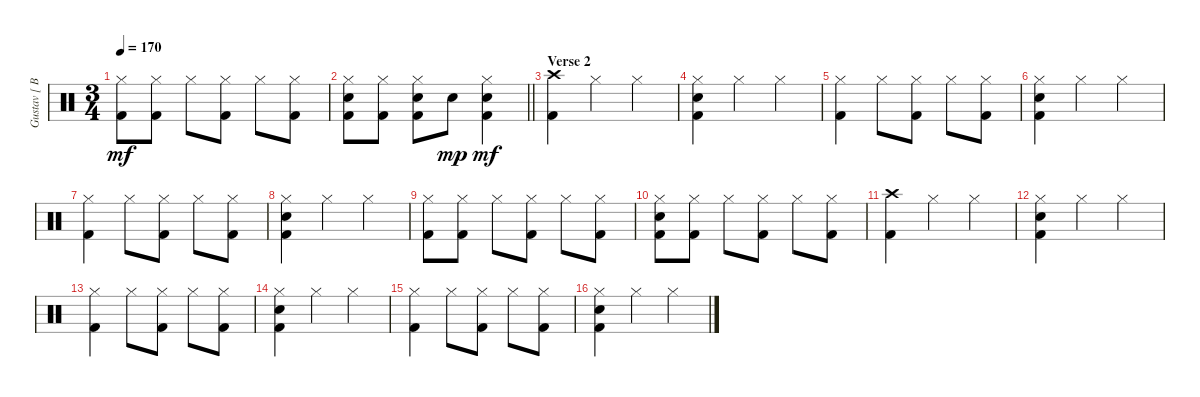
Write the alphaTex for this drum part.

\track ("Gustav [ Batterie ]" "Gustav [ B") {instrument percussion}
\staff {score}
\articulation defaults
\ts (3 4)
\tempo 170
\clef neutral
\ks c
("Hi-Hat (closed)" "Kick (hit) 2").8{dy mf} ("Hi-Hat (closed)" "Kick (hit) 2").8 "Hi-Hat (closed)".8 ("Hi-Hat (closed)" "Kick (hit) 2").8 "Hi-Hat (closed)".8 ("Hi-Hat (closed)" "Kick (hit) 2").8 |
\barLineRight lightlight
("Hi-Hat (closed)" "Snare (hit) 2" "Kick (hit) 2").8 ("Hi-Hat (closed)" "Kick (hit) 2").8 ("Hi-Hat (closed)" "Snare (hit) 2" "Kick (hit) 2").8 "Snare (hit) 2".8{dy mp} ("Hi-Hat (closed)" "Snare (hit) 2" "Kick (hit) 2").4{dy mf} |
\section ("" "Verse 2")
("Crash high (hit)" "Kick (hit) 2").4 "Hi-Hat (closed)".4 "Hi-Hat (closed)".4 |
("Hi-Hat (closed)" "Snare (hit) 2" "Kick (hit) 2").4 "Hi-Hat (closed)".4 "Hi-Hat (closed)".4 |
("Hi-Hat (closed)" "Kick (hit) 2").4 "Hi-Hat (closed)".8 ("Hi-Hat (closed)" "Kick (hit) 2").8 "Hi-Hat (closed)".8 ("Hi-Hat (closed)" "Kick (hit) 2").8 |
("Hi-Hat (closed)" "Snare (hit) 2" "Kick (hit) 2").4 "Hi-Hat (closed)".4 "Hi-Hat (closed)".4 |
("Hi-Hat (closed)" "Kick (hit) 2").4 "Hi-Hat (closed)".8 ("Hi-Hat (closed)" "Kick (hit) 2").8 "Hi-Hat (closed)".8 ("Hi-Hat (closed)" "Kick (hit) 2").8 |
("Hi-Hat (closed)" "Snare (hit) 2" "Kick (hit) 2").4 "Hi-Hat (closed)".4 "Hi-Hat (closed)".4 |
("Hi-Hat (closed)" "Kick (hit) 2").8 ("Hi-Hat (closed)" "Kick (hit) 2").8 "Hi-Hat (closed)".8 ("Hi-Hat (closed)" "Kick (hit) 2").8 "Hi-Hat (closed)".8 ("Hi-Hat (closed)" "Kick (hit) 2").8 |
("Hi-Hat (closed)" "Snare (hit) 2" "Kick (hit) 2").8 ("Hi-Hat (closed)" "Kick (hit) 2").8 "Hi-Hat (closed)".8 ("Hi-Hat (closed)" "Kick (hit) 2").8 "Hi-Hat (closed)".8 ("Hi-Hat (closed)" "Kick (hit) 2").8 |
("Crash high (hit)" "Kick (hit) 2").4 "Hi-Hat (closed)".4 "Hi-Hat (closed)".4 |
("Hi-Hat (closed)" "Snare (hit) 2" "Kick (hit) 2").4 "Hi-Hat (closed)".4 "Hi-Hat (closed)".4 |
("Hi-Hat (closed)" "Kick (hit) 2").4 "Hi-Hat (closed)".8 ("Hi-Hat (closed)" "Kick (hit) 2").8 "Hi-Hat (closed)".8 ("Hi-Hat (closed)" "Kick (hit) 2").8 |
("Hi-Hat (closed)" "Snare (hit) 2" "Kick (hit) 2").4 "Hi-Hat (closed)".4 "Hi-Hat (closed)".4 |
("Hi-Hat (closed)" "Kick (hit) 2").4 "Hi-Hat (closed)".8 ("Hi-Hat (closed)" "Kick (hit) 2").8 "Hi-Hat (closed)".8 ("Hi-Hat (closed)" "Kick (hit) 2").8 |
("Hi-Hat (closed)" "Snare (hit) 2" "Kick (hit) 2").4 "Hi-Hat (closed)".4 "Hi-Hat (closed)".4
